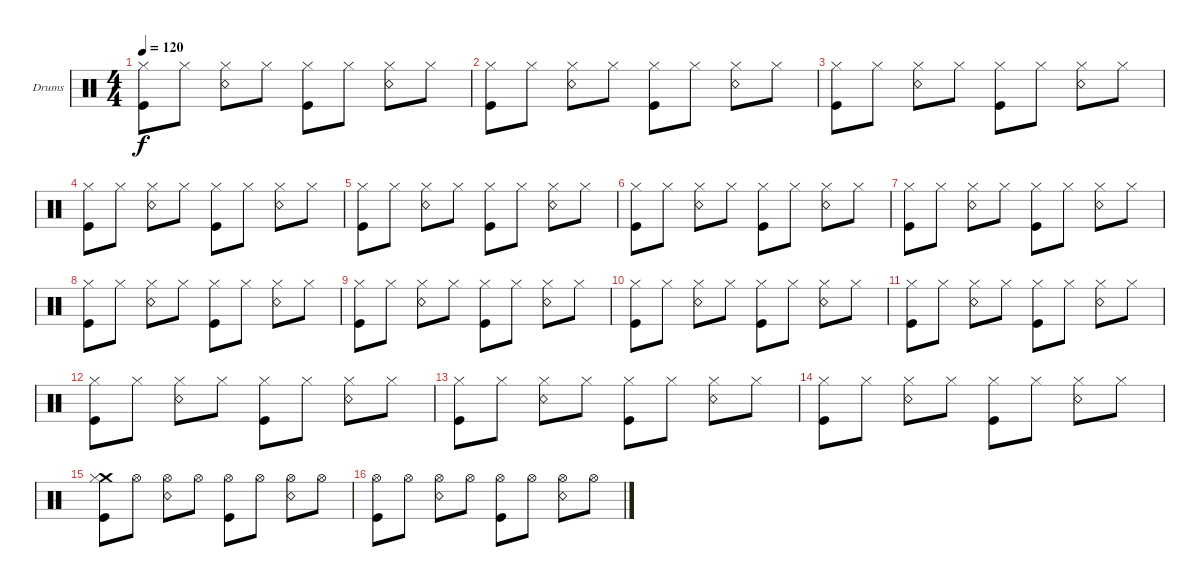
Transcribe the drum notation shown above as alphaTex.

\defaultSystemsLayout 4
\bracketExtendMode groupsimilarinstruments
\firstSystemTrackNameOrientation horizontal
\otherSystemsTrackNameOrientation horizontal
\track ("Drumkit" "Drums") {instrument percussion}
\staff {score}
\articulation defaults
\ts (4 4)
\tempo 120
\clef neutral
\scale
0.333333
\ks c
("Kick (hit)" "Hi-Hat (closed)").8{dy f} "Hi-Hat (closed)".8 ("Hi-Hat (closed)" "Snare (rim shot)").8 "Hi-Hat (closed)".8 ("Hi-Hat (closed)" "Kick (hit)").8 "Hi-Hat (closed)".8 ("Hi-Hat (closed)" "Snare (rim shot)").8 "Hi-Hat (closed)".8 |
\scale
0.333333 ("Kick (hit)" "Hi-Hat (closed)").8 "Hi-Hat (closed)".8 ("Hi-Hat (closed)" "Snare (rim shot)").8 "Hi-Hat (closed)".8 ("Hi-Hat (closed)" "Kick (hit)").8 "Hi-Hat (closed)".8 ("Hi-Hat (closed)" "Snare (rim shot)").8 "Hi-Hat (closed)".8 |
\scale
0.333333 ("Kick (hit)" "Hi-Hat (closed)").8 "Hi-Hat (closed)".8 ("Hi-Hat (closed)" "Snare (rim shot)").8 "Hi-Hat (closed)".8 ("Hi-Hat (closed)" "Kick (hit)").8 "Hi-Hat (closed)".8 ("Hi-Hat (closed)" "Snare (rim shot)").8 "Hi-Hat (closed)".8 |
\scale
0.333333 ("Kick (hit)" "Hi-Hat (closed)").8 "Hi-Hat (closed)".8 ("Hi-Hat (closed)" "Snare (rim shot)").8 "Hi-Hat (closed)".8 ("Hi-Hat (closed)" "Kick (hit)").8 "Hi-Hat (closed)".8 ("Hi-Hat (closed)" "Snare (rim shot)").8 "Hi-Hat (closed)".8 |
\scale
0.333333 ("Kick (hit)" "Hi-Hat (closed)").8 "Hi-Hat (closed)".8 ("Hi-Hat (closed)" "Snare (rim shot)").8 "Hi-Hat (closed)".8 ("Hi-Hat (closed)" "Kick (hit)").8 "Hi-Hat (closed)".8 ("Hi-Hat (closed)" "Snare (rim shot)").8 "Hi-Hat (closed)".8 |
\scale
0.333333 ("Kick (hit)" "Hi-Hat (closed)").8 "Hi-Hat (closed)".8 ("Hi-Hat (closed)" "Snare (rim shot)").8 "Hi-Hat (closed)".8 ("Hi-Hat (closed)" "Kick (hit)").8 "Hi-Hat (closed)".8 ("Hi-Hat (closed)" "Snare (rim shot)").8 "Hi-Hat (closed)".8 |
\scale
0.333333 ("Kick (hit)" "Hi-Hat (closed)").8 "Hi-Hat (closed)".8 ("Hi-Hat (closed)" "Snare (rim shot)").8 "Hi-Hat (closed)".8 ("Hi-Hat (closed)" "Kick (hit)").8 "Hi-Hat (closed)".8 ("Hi-Hat (closed)" "Snare (rim shot)").8 "Hi-Hat (closed)".8 |
\scale
0.333333 ("Kick (hit)" "Hi-Hat (closed)").8 "Hi-Hat (closed)".8 ("Hi-Hat (closed)" "Snare (rim shot)").8 "Hi-Hat (closed)".8 ("Hi-Hat (closed)" "Kick (hit)").8 "Hi-Hat (closed)".8 ("Hi-Hat (closed)" "Snare (rim shot)").8 "Hi-Hat (closed)".8 |
\scale
0.333333 ("Kick (hit)" "Hi-Hat (closed)").8 "Hi-Hat (closed)".8 ("Hi-Hat (closed)" "Snare (rim shot)").8 "Hi-Hat (closed)".8 ("Hi-Hat (closed)" "Kick (hit)").8 "Hi-Hat (closed)".8 ("Hi-Hat (closed)" "Snare (rim shot)").8 "Hi-Hat (closed)".8 |
\scale
0.333333 ("Kick (hit)" "Hi-Hat (closed)").8 "Hi-Hat (closed)".8 ("Hi-Hat (closed)" "Snare (rim shot)").8 "Hi-Hat (closed)".8 ("Hi-Hat (closed)" "Kick (hit)").8 "Hi-Hat (closed)".8 ("Hi-Hat (closed)" "Snare (rim shot)").8 "Hi-Hat (closed)".8 |
\scale
0.333333 ("Kick (hit)" "Hi-Hat (closed)").8 "Hi-Hat (closed)".8 ("Hi-Hat (closed)" "Snare (rim shot)").8 "Hi-Hat (closed)".8 ("Hi-Hat (closed)" "Kick (hit)").8 "Hi-Hat (closed)".8 ("Hi-Hat (closed)" "Snare (rim shot)").8 "Hi-Hat (closed)".8 |
\scale
0.333333 ("Kick (hit)" "Hi-Hat (closed)").8 "Hi-Hat (closed)".8 ("Hi-Hat (closed)" "Snare (rim shot)").8 "Hi-Hat (closed)".8 ("Hi-Hat (closed)" "Kick (hit)").8 "Hi-Hat (closed)".8 ("Hi-Hat (closed)" "Snare (rim shot)").8 "Hi-Hat (closed)".8 |
\scale
0.333333 ("Kick (hit)" "Hi-Hat (closed)").8 "Hi-Hat (closed)".8 ("Hi-Hat (closed)" "Snare (rim shot)").8 "Hi-Hat (closed)".8 ("Hi-Hat (closed)" "Kick (hit)").8 "Hi-Hat (closed)".8 ("Hi-Hat (closed)" "Snare (rim shot)").8 "Hi-Hat (closed)".8 |
\scale
0.333333 ("Kick (hit)" "Hi-Hat (closed)").8 "Hi-Hat (closed)".8 ("Hi-Hat (closed)" "Snare (rim shot)").8 "Hi-Hat (closed)".8 ("Hi-Hat (closed)" "Kick (hit)").8 "Hi-Hat (closed)".8 ("Hi-Hat (closed)" "Snare (rim shot)").8 "Hi-Hat (closed)".8 |
\scale
0.333333 ("Kick (hit)" "Crash medium (hit)" "Hi-Hat (closed)").8 "Hi-Hat (open)".8 ("Hi-Hat (open)" "Snare (rim shot)").8 "Hi-Hat (open)".8 ("Hi-Hat (open)" "Kick (hit)").8 "Hi-Hat (open)".8 ("Hi-Hat (open)" "Snare (rim shot)").8 "Hi-Hat (open)".8 |
\scale
0.333333 ("Kick (hit)" "Hi-Hat (open)").8 "Hi-Hat (open)".8 ("Hi-Hat (open)" "Snare (rim shot)").8 "Hi-Hat (open)".8 ("Hi-Hat (open)" "Kick (hit)").8 "Hi-Hat (open)".8 ("Hi-Hat (open)" "Snare (rim shot)").8 "Hi-Hat (open)".8
